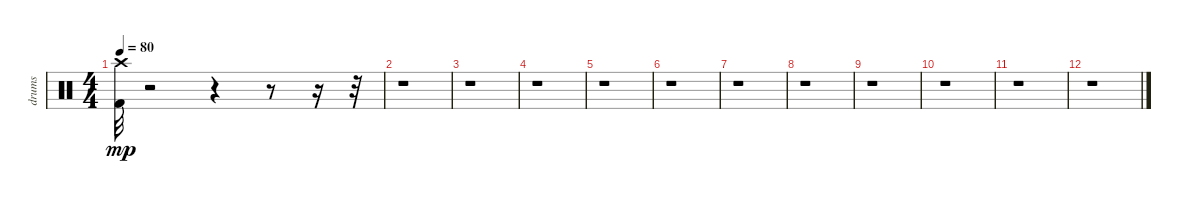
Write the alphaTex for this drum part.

\track ("drums" "drums") {instrument percussion}
\staff {score}
\articulation defaults
\ts (4 4)
\tempo 80
\clef neutral
\ks c
("Crash high (hit)" "Kick (hit) 2").32{dy mp} r.2 r.4 r.8 r.16 r.32 |
r.1 |
r.1 |
r.1 |
r.1 |
r.1 |
r.1 |
r.1 |
r.1 |
r.1 |
r.1 |
r.1
